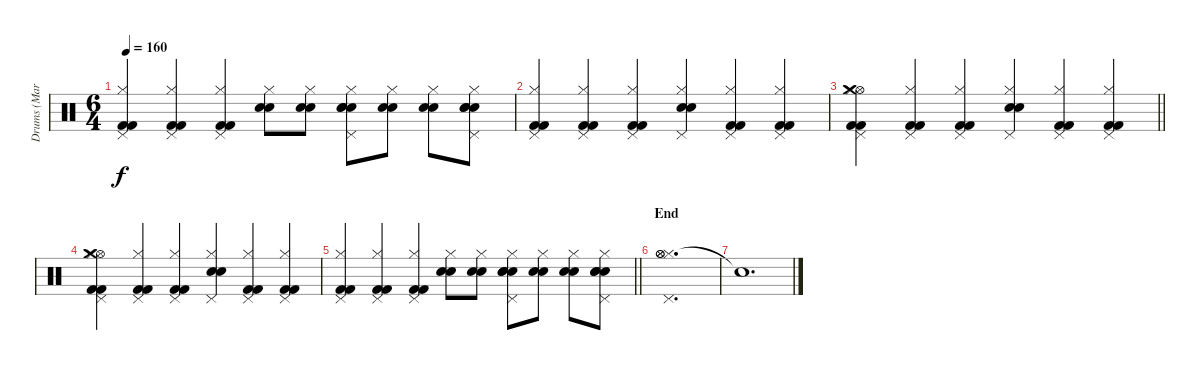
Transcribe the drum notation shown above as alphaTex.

\track ("Drums (Marc Allen)" "Drums (Mar") {instrument percussion}
\staff {score}
\articulation defaults
\ts (6 4)
\tempo 160
\clef neutral
\ks c
("Pedal Hi-Hat (hit)" "Hi-Hat (closed)" "Kick (hit) 2" "Kick (hit) 2").4{dy f} ("Pedal Hi-Hat (hit)" "Hi-Hat (closed)" "Kick (hit) 2" "Kick (hit) 2").4 ("Pedal Hi-Hat (hit)" "Hi-Hat (closed)" "Kick (hit) 2" "Kick (hit) 2").4 ("Hi-Hat (closed)" "Electric Snare (hit)" "Electric Snare (hit)").8 ("Hi-Hat (closed)" "Electric Snare (hit)" "Electric Snare (hit)").8 ("Hi-Hat (closed)" "Pedal Hi-Hat (hit)" "Electric Snare (hit)" "Electric Snare (hit)" "Snare (hit) 2").8 ("Hi-Hat (closed)" "Electric Snare (hit)" "Electric Snare (hit)").8 ("Hi-Hat (closed)" "Electric Snare (hit)" "Electric Snare (hit)").8 ("Hi-Hat (closed)" "Pedal Hi-Hat (hit)" "Electric Snare (hit)" "Electric Snare (hit)" "Snare (hit) 2").8 |
("Pedal Hi-Hat (hit)" "Hi-Hat (closed)" "Kick (hit) 2" "Kick (hit) 2").4 ("Pedal Hi-Hat (hit)" "Hi-Hat (closed)" "Kick (hit) 2" "Kick (hit) 2").4 ("Pedal Hi-Hat (hit)" "Hi-Hat (closed)" "Kick (hit) 2" "Kick (hit) 2").4 ("Pedal Hi-Hat (hit)" "Hi-Hat (closed)" "Electric Snare (hit)" "Electric Snare (hit)").4 ("Pedal Hi-Hat (hit)" "Hi-Hat (closed)" "Kick (hit) 2" "Kick (hit) 2").4 ("Pedal Hi-Hat (hit)" "Hi-Hat (closed)" "Kick (hit) 2" "Kick (hit) 2").4 |
\barLineRight lightlight
("Pedal Hi-Hat (hit)" "Hi-Hat (open)" "Hi-Hat (closed)" "Crash medium (hit)" "Kick (hit) 2" "Kick (hit) 2").4 ("Pedal Hi-Hat (hit)" "Hi-Hat (closed)" "Kick (hit) 2" "Kick (hit) 2").4 ("Pedal Hi-Hat (hit)" "Hi-Hat (closed)" "Kick (hit) 2" "Kick (hit) 2").4 ("Pedal Hi-Hat (hit)" "Hi-Hat (closed)" "Electric Snare (hit)" "Electric Snare (hit)").4 ("Pedal Hi-Hat (hit)" "Hi-Hat (closed)" "Kick (hit) 2" "Kick (hit) 2").4 ("Pedal Hi-Hat (hit)" "Hi-Hat (closed)" "Kick (hit) 2" "Kick (hit) 2").4 |
("Pedal Hi-Hat (hit)" "Hi-Hat (open)" "Hi-Hat (closed)" "Crash medium (hit)" "Kick (hit) 2" "Kick (hit) 2").4 ("Pedal Hi-Hat (hit)" "Hi-Hat (closed)" "Kick (hit) 2" "Kick (hit) 2").4 ("Pedal Hi-Hat (hit)" "Hi-Hat (closed)" "Kick (hit) 2" "Kick (hit) 2").4 ("Pedal Hi-Hat (hit)" "Hi-Hat (closed)" "Electric Snare (hit)" "Electric Snare (hit)").4 ("Pedal Hi-Hat (hit)" "Hi-Hat (closed)" "Kick (hit) 2" "Kick (hit) 2").4 ("Pedal Hi-Hat (hit)" "Hi-Hat (closed)" "Kick (hit) 2" "Kick (hit) 2").4 |
\barLineRight lightlight
("Pedal Hi-Hat (hit)" "Hi-Hat (closed)" "Kick (hit) 2" "Kick (hit) 2").4 ("Pedal Hi-Hat (hit)" "Hi-Hat (closed)" "Kick (hit) 2" "Kick (hit) 2").4 ("Pedal Hi-Hat (hit)" "Hi-Hat (closed)" "Kick (hit) 2" "Kick (hit) 2").4 ("Hi-Hat (closed)" "Electric Snare (hit)" "Electric Snare (hit)").8 ("Hi-Hat (closed)" "Electric Snare (hit)" "Electric Snare (hit)").8 ("Hi-Hat (closed)" "Pedal Hi-Hat (hit)" "Electric Snare (hit)" "Electric Snare (hit)" "Snare (hit) 2").8 ("Hi-Hat (closed)" "Electric Snare (hit)" "Electric Snare (hit)").8 ("Hi-Hat (closed)" "Electric Snare (hit)" "Electric Snare (hit)").8 ("Hi-Hat (closed)" "Pedal Hi-Hat (hit)" "Electric Snare (hit)" "Electric Snare (hit)" "Snare (hit) 2").8 |
\section ("" "End")
("Hi-Hat (closed)" "Hi-Hat (open)" "Pedal Hi-Hat (hit)" "Hi-Hat (open)").1{d} |
"Snare (hit)"{t}.1{d}
